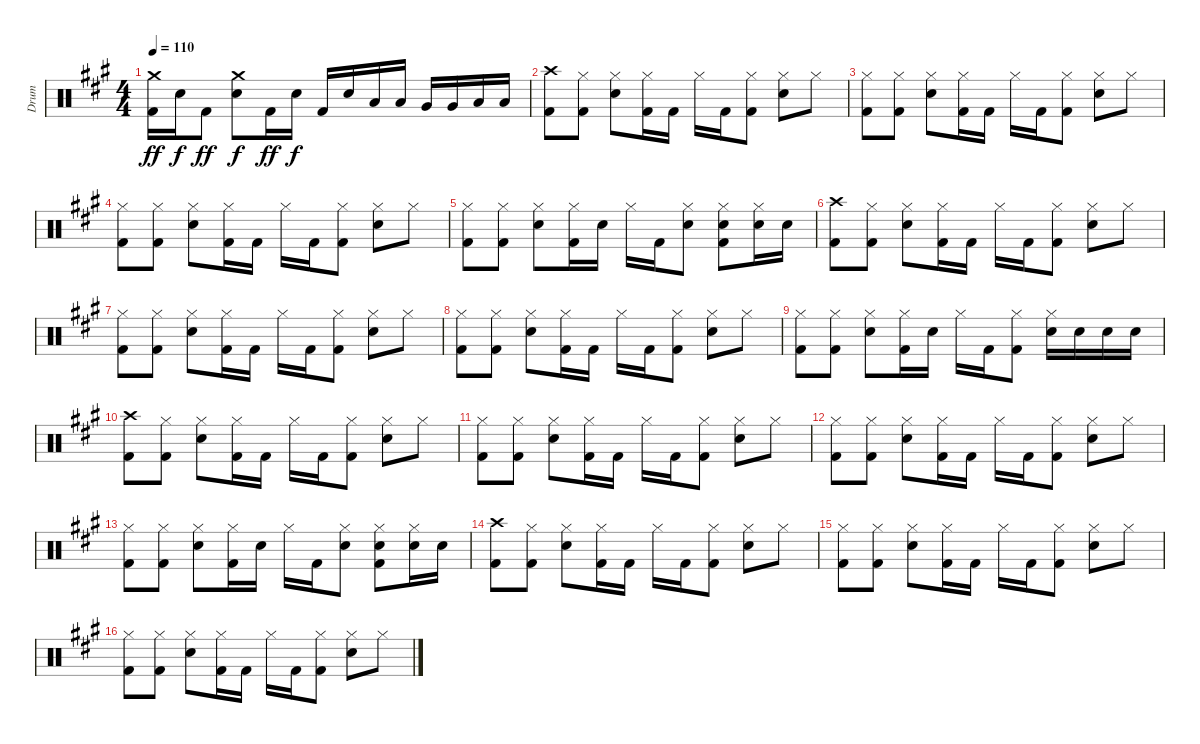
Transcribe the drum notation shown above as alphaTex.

\track ("Drum" "Drum") {instrument percussion}
\staff {score}
\articulation defaults
\ts (4 4)
\tempo 110
\clef neutral
\ks a
("Crash medium (hit)" "Kick (hit) 2").16{dy ff} "Electric Snare (hit)".16{dy f} "Kick (hit) 2".8{dy ff} ("Crash medium (hit)" "Electric Snare (hit)").8{dy f} "Kick (hit) 2".16{dy ff} "Electric Snare (hit)".16{dy f} "Kick (hit) 2".16 "Electric Snare (hit)".16 "Low Tom (hit)".16 "Low Tom (hit)".16 "Very Low Tom (hit)".16 "Very Low Tom (hit)".16 "Low Floor Tom (hit)".16 "Low Floor Tom (hit)".16 |
("Crash high (hit)" "Kick (hit) 2").8 ("Hi-Hat (closed)" "Kick (hit) 2").8 ("Hi-Hat (closed)" "Electric Snare (hit)").8 ("Hi-Hat (closed)" "Kick (hit) 2").16 "Kick (hit) 2".16 "Hi-Hat (closed)".16 "Kick (hit) 2".16 ("Hi-Hat (closed)" "Kick (hit) 2").8 ("Hi-Hat (closed)" "Electric Snare (hit)").8 "Hi-Hat (closed)".8 |
("Hi-Hat (closed)" "Kick (hit) 2").8 ("Hi-Hat (closed)" "Kick (hit) 2").8 ("Hi-Hat (closed)" "Electric Snare (hit)").8 ("Hi-Hat (closed)" "Kick (hit) 2").16 "Kick (hit) 2".16 "Hi-Hat (closed)".16 "Kick (hit) 2".16 ("Hi-Hat (closed)" "Kick (hit) 2").8 ("Hi-Hat (closed)" "Electric Snare (hit)").8 "Hi-Hat (closed)".8 |
("Hi-Hat (closed)" "Kick (hit) 2").8 ("Hi-Hat (closed)" "Kick (hit) 2").8 ("Hi-Hat (closed)" "Electric Snare (hit)").8 ("Hi-Hat (closed)" "Kick (hit) 2").16 "Kick (hit) 2".16 "Hi-Hat (closed)".16 "Kick (hit) 2".16 ("Hi-Hat (closed)" "Kick (hit) 2").8 ("Hi-Hat (closed)" "Electric Snare (hit)").8 "Hi-Hat (closed)".8 |
("Hi-Hat (closed)" "Kick (hit) 2").8 ("Hi-Hat (closed)" "Kick (hit) 2").8 ("Hi-Hat (closed)" "Electric Snare (hit)").8 ("Hi-Hat (closed)" "Kick (hit) 2").16 "Electric Snare (hit)".16 "Hi-Hat (closed)".16 "Kick (hit) 2".16 ("Hi-Hat (closed)" "Electric Snare (hit)").8 ("Hi-Hat (closed)" "Electric Snare (hit)" "Kick (hit) 2").8 ("Hi-Hat (closed)" "Electric Snare (hit)").16 "Electric Snare (hit)".16 |
("Crash high (hit)" "Kick (hit) 2").8 ("Hi-Hat (closed)" "Kick (hit) 2").8 ("Hi-Hat (closed)" "Electric Snare (hit)").8 ("Hi-Hat (closed)" "Kick (hit) 2").16 "Kick (hit) 2".16 "Hi-Hat (closed)".16 "Kick (hit) 2".16 ("Hi-Hat (closed)" "Kick (hit) 2").8 ("Hi-Hat (closed)" "Electric Snare (hit)").8 "Hi-Hat (closed)".8 |
("Hi-Hat (closed)" "Kick (hit) 2").8 ("Hi-Hat (closed)" "Kick (hit) 2").8 ("Hi-Hat (closed)" "Electric Snare (hit)").8 ("Hi-Hat (closed)" "Kick (hit) 2").16 "Kick (hit) 2".16 "Hi-Hat (closed)".16 "Kick (hit) 2".16 ("Hi-Hat (closed)" "Kick (hit) 2").8 ("Hi-Hat (closed)" "Electric Snare (hit)").8 "Hi-Hat (closed)".8 |
("Hi-Hat (closed)" "Kick (hit) 2").8 ("Hi-Hat (closed)" "Kick (hit) 2").8 ("Hi-Hat (closed)" "Electric Snare (hit)").8 ("Hi-Hat (closed)" "Kick (hit) 2").16 "Kick (hit) 2".16 "Hi-Hat (closed)".16 "Kick (hit) 2".16 ("Hi-Hat (closed)" "Kick (hit) 2").8 ("Hi-Hat (closed)" "Electric Snare (hit)").8 "Hi-Hat (closed)".8 |
("Hi-Hat (closed)" "Kick (hit) 2").8 ("Hi-Hat (closed)" "Kick (hit) 2").8 ("Hi-Hat (closed)" "Electric Snare (hit)").8 ("Hi-Hat (closed)" "Kick (hit) 2").16 "Electric Snare (hit)".16 "Hi-Hat (closed)".16 "Kick (hit) 2".16 ("Hi-Hat (closed)" "Kick (hit) 2").8 ("Hi-Hat (closed)" "Electric Snare (hit)").16 "Electric Snare (hit)".16 "Electric Snare (hit)".16 "Electric Snare (hit)".16 |
("Crash high (hit)" "Kick (hit) 2").8 ("Hi-Hat (closed)" "Kick (hit) 2").8 ("Hi-Hat (closed)" "Electric Snare (hit)").8 ("Hi-Hat (closed)" "Kick (hit) 2").16 "Kick (hit) 2".16 "Hi-Hat (closed)".16 "Kick (hit) 2".16 ("Hi-Hat (closed)" "Kick (hit) 2").8 ("Hi-Hat (closed)" "Electric Snare (hit)").8 "Hi-Hat (closed)".8 |
("Hi-Hat (closed)" "Kick (hit) 2").8 ("Hi-Hat (closed)" "Kick (hit) 2").8 ("Hi-Hat (closed)" "Electric Snare (hit)").8 ("Hi-Hat (closed)" "Kick (hit) 2").16 "Kick (hit) 2".16 "Hi-Hat (closed)".16 "Kick (hit) 2".16 ("Hi-Hat (closed)" "Kick (hit) 2").8 ("Hi-Hat (closed)" "Electric Snare (hit)").8 "Hi-Hat (closed)".8 |
("Hi-Hat (closed)" "Kick (hit) 2").8 ("Hi-Hat (closed)" "Kick (hit) 2").8 ("Hi-Hat (closed)" "Electric Snare (hit)").8 ("Hi-Hat (closed)" "Kick (hit) 2").16 "Kick (hit) 2".16 "Hi-Hat (closed)".16 "Kick (hit) 2".16 ("Hi-Hat (closed)" "Kick (hit) 2").8 ("Hi-Hat (closed)" "Electric Snare (hit)").8 "Hi-Hat (closed)".8 |
("Hi-Hat (closed)" "Kick (hit) 2").8 ("Hi-Hat (closed)" "Kick (hit) 2").8 ("Hi-Hat (closed)" "Electric Snare (hit)").8 ("Hi-Hat (closed)" "Kick (hit) 2").16 "Electric Snare (hit)".16 "Hi-Hat (closed)".16 "Kick (hit) 2".16 ("Hi-Hat (closed)" "Electric Snare (hit)").8 ("Hi-Hat (closed)" "Electric Snare (hit)" "Kick (hit) 2").8 ("Hi-Hat (closed)" "Electric Snare (hit)").16 "Electric Snare (hit)".16 |
("Crash high (hit)" "Kick (hit) 2").8 ("Hi-Hat (closed)" "Kick (hit) 2").8 ("Hi-Hat (closed)" "Electric Snare (hit)").8 ("Hi-Hat (closed)" "Kick (hit) 2").16 "Kick (hit) 2".16 "Hi-Hat (closed)".16 "Kick (hit) 2".16 ("Hi-Hat (closed)" "Kick (hit) 2").8 ("Hi-Hat (closed)" "Electric Snare (hit)").8 "Hi-Hat (closed)".8 |
("Hi-Hat (closed)" "Kick (hit) 2").8 ("Hi-Hat (closed)" "Kick (hit) 2").8 ("Hi-Hat (closed)" "Electric Snare (hit)").8 ("Hi-Hat (closed)" "Kick (hit) 2").16 "Kick (hit) 2".16 "Hi-Hat (closed)".16 "Kick (hit) 2".16 ("Hi-Hat (closed)" "Kick (hit) 2").8 ("Hi-Hat (closed)" "Electric Snare (hit)").8 "Hi-Hat (closed)".8 |
("Hi-Hat (closed)" "Kick (hit) 2").8 ("Hi-Hat (closed)" "Kick (hit) 2").8 ("Hi-Hat (closed)" "Electric Snare (hit)").8 ("Hi-Hat (closed)" "Kick (hit) 2").16 "Kick (hit) 2".16 "Hi-Hat (closed)".16 "Kick (hit) 2".16 ("Hi-Hat (closed)" "Kick (hit) 2").8 ("Hi-Hat (closed)" "Electric Snare (hit)").8 "Hi-Hat (closed)".8
